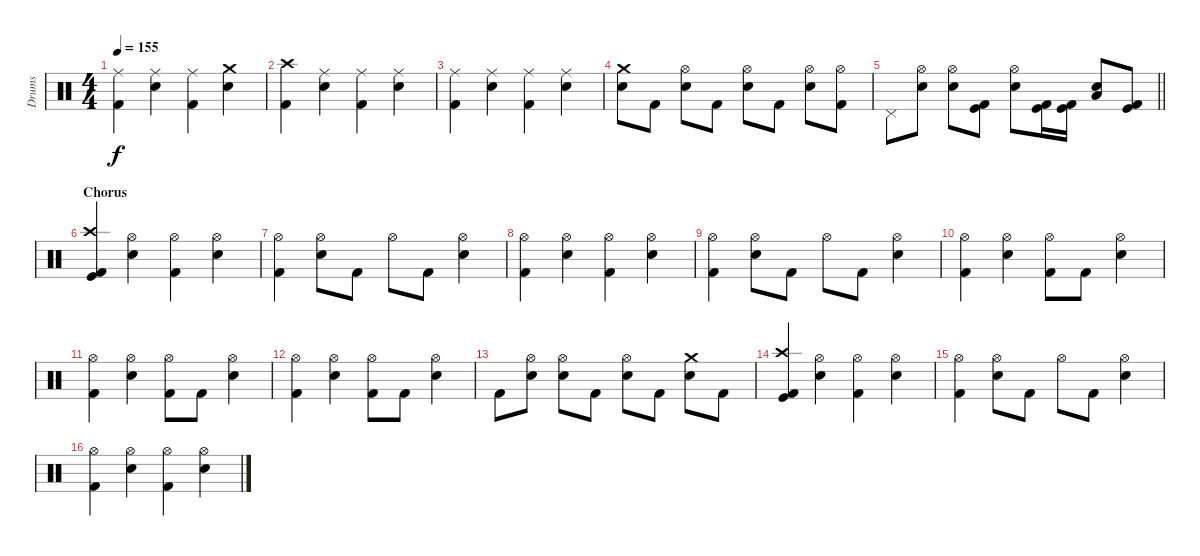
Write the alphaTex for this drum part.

\track ("Drums" "Drums") {instrument percussion}
\staff {score}
\articulation defaults
\ts (4 4)
\tempo 155
\clef neutral
\ks c
("Ride (middle)" "Kick (hit) 2").4{dy f} ("Ride (middle)" "Electric Snare (hit)").4 ("Ride (middle)" "Kick (hit) 2").4 ("Crash medium (hit)" "Electric Snare (hit)").4 |
("Crash high (hit)" "Kick (hit) 2").4 ("Ride (middle)" "Electric Snare (hit)").4 ("Ride (middle)" "Kick (hit) 2").4 ("Ride (middle)" "Electric Snare (hit)").4 |
("Ride (middle)" "Kick (hit) 2").4 ("Ride (middle)" "Electric Snare (hit)").4 ("Ride (middle)" "Kick (hit) 2").4 ("Ride (middle)" "Electric Snare (hit)").4 |
("Crash medium (hit)" "Electric Snare (hit)").8 "Kick (hit) 2".8 ("Hi-Hat (open)" "Electric Snare (hit)").8 "Kick (hit) 2".8 ("Hi-Hat (open)" "Electric Snare (hit)").8 "Kick (hit) 2".8 ("Hi-Hat (open)" "Electric Snare (hit)").8 ("Hi-Hat (open)" "Kick (hit) 2").8 |
\barLineRight lightlight "Pedal Hi-Hat (hit)".8
("Hi-Hat (open)" "Electric Snare (hit)").8 ("Hi-Hat (open)" "Electric Snare (hit)").8 ("Kick (hit) 2" "Kick (hit)").8 ("Hi-Hat (open)" "Electric Snare (hit)").8 ("Kick (hit) 2" "Kick (hit)").16 ("Kick (hit) 2" "Kick (hit)").16 ("Low Floor Tom (hit)" "Electric Snare (hit)").8 ("Kick (hit) 2" "Kick (hit)").8 |
\section ("" "Chorus")
("Crash high (hit)" "Kick (hit) 2" "Kick (hit)").4 ("Hi-Hat (open)" "Electric Snare (hit)").4 ("Hi-Hat (open)" "Kick (hit) 2").4 ("Hi-Hat (open)" "Electric Snare (hit)").4 |
("Hi-Hat (open)" "Kick (hit) 2").4 ("Hi-Hat (open)" "Electric Snare (hit)").8 "Kick (hit) 2".8 "Hi-Hat (open)".8 "Kick (hit) 2".8 ("Hi-Hat (open)" "Electric Snare (hit)").4 |
("Hi-Hat (open)" "Kick (hit) 2").4 ("Hi-Hat (open)" "Electric Snare (hit)").4 ("Hi-Hat (open)" "Kick (hit) 2").4 ("Hi-Hat (open)" "Electric Snare (hit)").4 |
("Hi-Hat (open)" "Kick (hit) 2").4 ("Hi-Hat (open)" "Electric Snare (hit)").8 "Kick (hit) 2".8 "Hi-Hat (open)".8 "Kick (hit) 2".8 ("Hi-Hat (open)" "Electric Snare (hit)").4 |
("Hi-Hat (open)" "Kick (hit) 2").4 ("Hi-Hat (open)" "Electric Snare (hit)").4 ("Hi-Hat (open)" "Kick (hit) 2").8 "Kick (hit) 2".8 ("Hi-Hat (open)" "Electric Snare (hit)").4 |
("Hi-Hat (open)" "Kick (hit) 2").4 ("Hi-Hat (open)" "Electric Snare (hit)").4 ("Hi-Hat (open)" "Kick (hit) 2").8 "Kick (hit) 2".8 ("Hi-Hat (open)" "Electric Snare (hit)").4 |
("Hi-Hat (open)" "Kick (hit) 2").4 ("Hi-Hat (open)" "Electric Snare (hit)").4 ("Hi-Hat (open)" "Kick (hit) 2").8 "Kick (hit) 2".8 ("Hi-Hat (open)" "Electric Snare (hit)").4 |
"Kick (hit) 2".8 ("Hi-Hat (open)" "Electric Snare (hit)").8 ("Hi-Hat (open)" "Electric Snare (hit)").8 "Kick (hit) 2".8 ("Hi-Hat (open)" "Electric Snare (hit)").8 "Kick (hit) 2".8 ("Crash medium (hit)" "Electric Snare (hit)").8 "Kick (hit) 2".8 |
("Crash high (hit)" "Kick (hit) 2" "Kick (hit)").4 ("Hi-Hat (open)" "Electric Snare (hit)").4 ("Hi-Hat (open)" "Kick (hit) 2").4 ("Hi-Hat (open)" "Electric Snare (hit)").4 |
("Hi-Hat (open)" "Kick (hit) 2").4 ("Hi-Hat (open)" "Electric Snare (hit)").8 "Kick (hit) 2".8 "Hi-Hat (open)".8 "Kick (hit) 2".8 ("Hi-Hat (open)" "Electric Snare (hit)").4 |
("Hi-Hat (open)" "Kick (hit) 2").4 ("Hi-Hat (open)" "Electric Snare (hit)").4 ("Hi-Hat (open)" "Kick (hit) 2").4 ("Hi-Hat (open)" "Electric Snare (hit)").4
